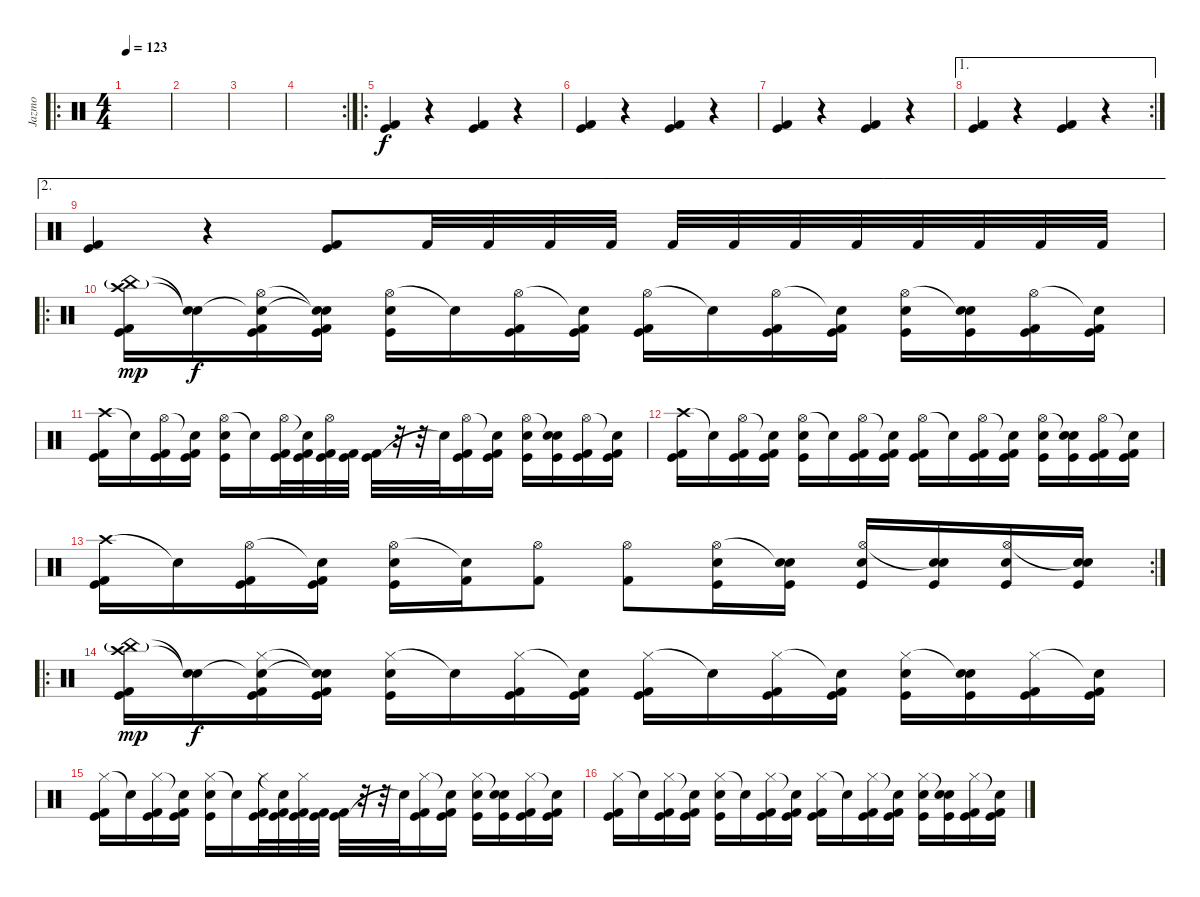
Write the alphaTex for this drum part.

\track ("Jazmo" "Jazmo") {instrument percussion}
\staff {score}
\articulation defaults
\ro
\ts (4 4)
\tempo 123
\clef neutral
\ks c
|
|
|
\rc 2
|
\ro
("Kick (hit)" "Kick (hit) 2").4 r.4 ("Kick (hit)" "Kick (hit) 2").4 r.4 |
("Kick (hit)" "Kick (hit) 2").4 r.4 ("Kick (hit)" "Kick (hit) 2").4 r.4 |
("Kick (hit)" "Kick (hit) 2").4 r.4 ("Kick (hit)" "Kick (hit) 2").4 r.4 |
\ae 1
\rc 2
("Kick (hit)" "Kick (hit) 2").4 r.4 ("Kick (hit)" "Kick (hit) 2").4 r.4 |
\ae 2
("Kick (hit)" "Kick (hit) 2").4 r.4 ("Kick (hit)" "Kick (hit) 2").8 "Kick (hit) 2".32{dy f} "Kick (hit) 2".32 "Kick (hit) 2".32 "Kick (hit) 2".32 "Kick (hit) 2".32 "Kick (hit) 2".32 "Kick (hit) 2".32 "Kick (hit) 2".32 "Kick (hit) 2".32 "Kick (hit) 2".32 "Kick (hit) 2".32 "Kick (hit) 2".32 |
\ro
("Crash high (hit)" "China (hit)"{g} "Kick (hit)" "Kick (hit) 2").16{dy mp} ("Snare (hit)"{t} "Snare (hit)"{t}).16{dy f} ("Hi-Hat (open)" "Snare (hit)"{t} "Kick (hit)" "Kick (hit) 2").16 ("Snare (hit)"{t} "Snare (hit)"{t} "Kick (hit)" "Kick (hit) 2").16 ("Hi-Hat (open)" "Kick (hit)" "Electric Snare (hit)").16 "Snare (hit)"{t}.16 ("Hi-Hat (open)" "Kick (hit)" "Kick (hit) 2").16 ("Snare (hit)"{t} "Kick (hit)" "Kick (hit) 2").16 ("Hi-Hat (open)" "Kick (hit)" "Kick (hit) 2").16 "Snare (hit)"{t}.16 ("Hi-Hat (open)" "Kick (hit)" "Kick (hit) 2").16 ("Snare (hit)"{t} "Kick (hit)" "Kick (hit) 2").16 ("Hi-Hat (open)" "Kick (hit)" "Electric Snare (hit)").16 ("Snare (hit)"{t} "Kick (hit)" "Electric Snare (hit)").16 ("Hi-Hat (open)" "Kick (hit)" "Kick (hit) 2").16 ("Snare (hit)"{t} "Kick (hit)" "Kick (hit) 2").16 |
("Crash high (hit)" "Kick (hit)" "Kick (hit) 2").16 "Snare (hit)"{t}.16 ("Hi-Hat (open)" "Kick (hit)" "Kick (hit) 2").16 ("Snare (hit)"{t} "Kick (hit)" "Kick (hit) 2").16 ("Hi-Hat (open)" "Kick (hit)" "Electric Snare (hit)").16 "Snare (hit)"{t}.16 ("Hi-Hat (open)" "Kick (hit)" "Kick (hit) 2").32 ("Snare (hit)"{t} "Kick (hit)" "Kick (hit) 2").32 ("Hi-Hat (open)" "Kick (hit)" "Kick (hit) 2").32 ("Kick (hit)" "Kick (hit) 2").32 ("Kick (hit)" "Kick (hit) 2").32 r.32 r.32 "Snare (hit)"{t}.32 ("Hi-Hat (open)" "Kick (hit)" "Kick (hit) 2").16 ("Snare (hit)"{t} "Kick (hit)" "Kick (hit) 2").16 ("Hi-Hat (open)" "Kick (hit)" "Electric Snare (hit)").16 ("Snare (hit)"{t} "Kick (hit)" "Electric Snare (hit)").16 ("Hi-Hat (open)" "Kick (hit)" "Kick (hit) 2").16 ("Snare (hit)"{t} "Kick (hit)" "Kick (hit) 2").16 |
("Crash high (hit)" "Kick (hit)" "Kick (hit) 2").16 "Snare (hit)"{t}.16 ("Hi-Hat (open)" "Kick (hit)" "Kick (hit) 2").16 ("Snare (hit)"{t} "Kick (hit)" "Kick (hit) 2").16 ("Hi-Hat (open)" "Kick (hit)" "Electric Snare (hit)").16 "Snare (hit)"{t}.16 ("Hi-Hat (open)" "Kick (hit)" "Kick (hit) 2").16 ("Snare (hit)"{t} "Kick (hit)" "Kick (hit) 2").16 ("Hi-Hat (open)" "Kick (hit)" "Kick (hit) 2").16 "Snare (hit)"{t}.16 ("Hi-Hat (open)" "Kick (hit)" "Kick (hit) 2").16 ("Snare (hit)"{t} "Kick (hit)" "Kick (hit) 2").16 ("Hi-Hat (open)" "Kick (hit)" "Electric Snare (hit)").16 ("Snare (hit)"{t} "Kick (hit)" "Electric Snare (hit)").16 ("Hi-Hat (open)" "Kick (hit)" "Kick (hit) 2").16 ("Snare (hit)"{t} "Kick (hit)" "Kick (hit) 2").16 |
\rc 2
("Crash high (hit)" "Kick (hit)" "Kick (hit) 2").16 "Snare (hit)"{t}.16 ("Hi-Hat (open)" "Kick (hit)" "Kick (hit) 2").16 ("Snare (hit)"{t} "Kick (hit)" "Kick (hit) 2").16 ("Hi-Hat (open)" "Kick (hit)" "Electric Snare (hit)").16 ("Snare (hit)"{t} "Kick (hit) 2").16 ("Hi-Hat (open)" "Kick (hit) 2").8 ("Hi-Hat (open)" "Kick (hit) 2").8 ("Hi-Hat (open)" "Kick (hit)" "Electric Snare (hit)").16 ("Snare (hit)"{t} "Kick (hit)" "Electric Snare (hit)").16 ("Hi-Hat (open)" "Kick (hit)" "Electric Snare (hit)").16 ("Snare (hit)"{t} "Kick (hit)" "Electric Snare (hit)").16 ("Hi-Hat (open)" "Kick (hit)" "Electric Snare (hit)").16 ("Snare (hit)"{t} "Kick (hit)" "Electric Snare (hit)").16 |
\ro
("Crash high (hit)" "China (hit)"{g} "Kick (hit)" "Kick (hit) 2").16{dy mp} ("Snare (hit)"{t} "Snare (hit)"{t}).16{dy f} ("Hi-Hat (closed)" "Snare (hit)"{t} "Kick (hit)" "Kick (hit) 2").16 ("Snare (hit)"{t} "Snare (hit)"{t} "Kick (hit)" "Kick (hit) 2").16 ("Hi-Hat (closed)" "Kick (hit)" "Electric Snare (hit)").16 "Snare (hit)"{t}.16 ("Hi-Hat (closed)" "Kick (hit)" "Kick (hit) 2").16 ("Snare (hit)"{t} "Kick (hit)" "Kick (hit) 2").16 ("Hi-Hat (closed)" "Kick (hit)" "Kick (hit) 2").16 "Snare (hit)"{t}.16 ("Hi-Hat (closed)" "Kick (hit)" "Kick (hit) 2").16 ("Snare (hit)"{t} "Kick (hit)" "Kick (hit) 2").16 ("Hi-Hat (closed)" "Kick (hit)" "Electric Snare (hit)").16 ("Snare (hit)"{t} "Kick (hit)" "Electric Snare (hit)").16 ("Hi-Hat (closed)" "Kick (hit)" "Kick (hit) 2").16 ("Snare (hit)"{t} "Kick (hit)" "Kick (hit) 2").16 |
("Hi-Hat (closed)" "Kick (hit)" "Kick (hit) 2").16 "Snare (hit)"{t}.16 ("Hi-Hat (closed)" "Kick (hit)" "Kick (hit) 2").16 ("Snare (hit)"{t} "Kick (hit)" "Kick (hit) 2").16 ("Hi-Hat (closed)" "Kick (hit)" "Electric Snare (hit)").16 "Snare (hit)"{t}.16 ("Hi-Hat (closed)" "Kick (hit)" "Kick (hit) 2").32 ("Snare (hit)"{t} "Kick (hit)" "Kick (hit) 2").32 ("Hi-Hat (closed)" "Kick (hit)" "Kick (hit) 2").32 ("Kick (hit)" "Kick (hit) 2").32 ("Kick (hit)" "Kick (hit) 2").32 r.32 r.32 "Snare (hit)"{t}.32 ("Hi-Hat (closed)" "Kick (hit)" "Kick (hit) 2").16 ("Snare (hit)"{t} "Kick (hit)" "Kick (hit) 2").16 ("Hi-Hat (closed)" "Kick (hit)" "Electric Snare (hit)").16 ("Snare (hit)"{t} "Kick (hit)" "Electric Snare (hit)").16 ("Hi-Hat (closed)" "Kick (hit)" "Kick (hit) 2").16 ("Snare (hit)"{t} "Kick (hit)" "Kick (hit) 2").16 |
("Hi-Hat (closed)" "Kick (hit)" "Kick (hit) 2").16 "Snare (hit)"{t}.16 ("Hi-Hat (closed)" "Kick (hit)" "Kick (hit) 2").16 ("Snare (hit)"{t} "Kick (hit)" "Kick (hit) 2").16 ("Hi-Hat (closed)" "Kick (hit)" "Electric Snare (hit)").16 "Snare (hit)"{t}.16 ("Hi-Hat (closed)" "Kick (hit)" "Kick (hit) 2").16 ("Snare (hit)"{t} "Kick (hit)" "Kick (hit) 2").16 ("Hi-Hat (closed)" "Kick (hit)" "Kick (hit) 2").16 "Snare (hit)"{t}.16 ("Hi-Hat (closed)" "Kick (hit)" "Kick (hit) 2").16 ("Snare (hit)"{t} "Kick (hit)" "Kick (hit) 2").16 ("Hi-Hat (closed)" "Kick (hit)" "Electric Snare (hit)").16 ("Snare (hit)"{t} "Kick (hit)" "Electric Snare (hit)").16 ("Hi-Hat (closed)" "Kick (hit)" "Kick (hit) 2").16 ("Snare (hit)"{t} "Kick (hit)" "Kick (hit) 2").16
